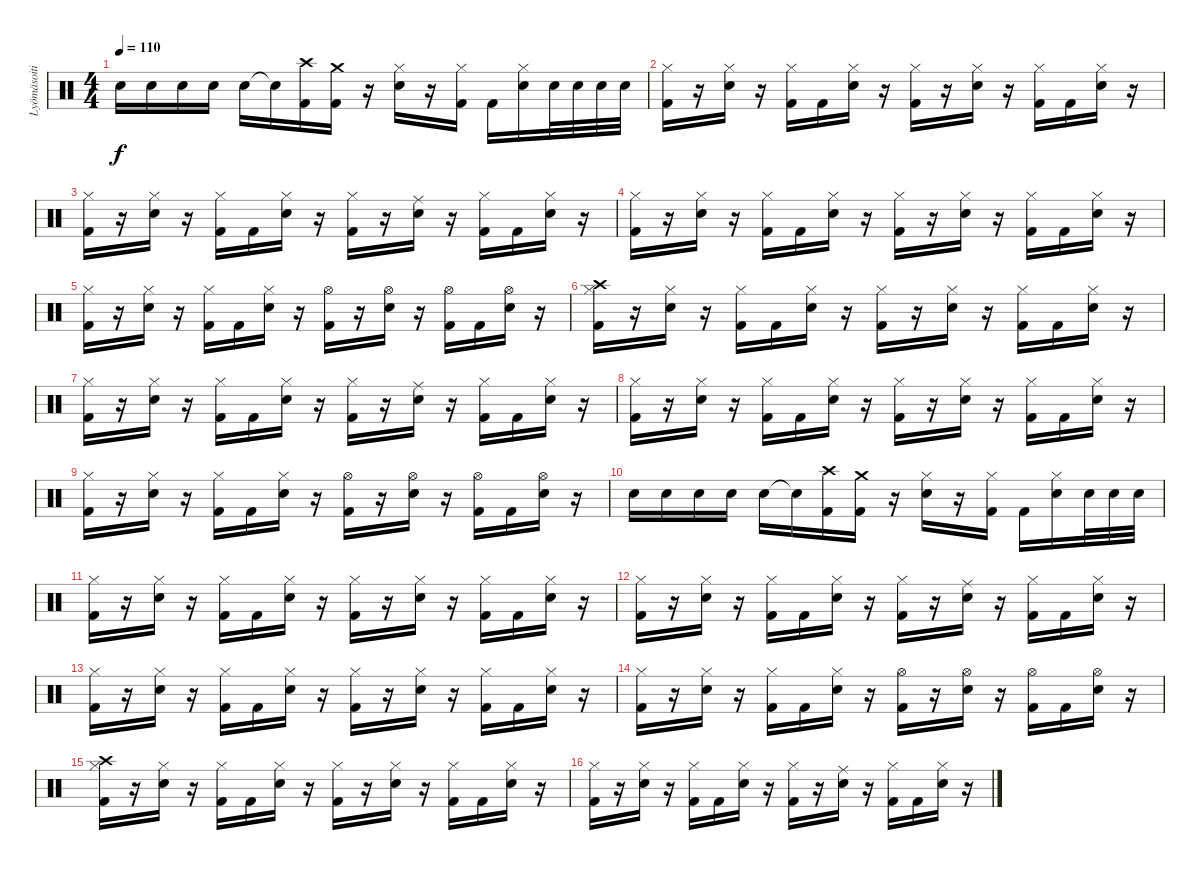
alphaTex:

\track ("Lyömäsoitin" "Lyömäsoiti") {instrument percussion}
\staff {score}
\articulation defaults
\ts (4 4)
\tempo 110
\clef neutral
\ks c "Snare (hit) 2".16{dy f} "Snare (hit) 2".16 "Snare (hit) 2".16 "Snare (hit) 2".16 "Snare (hit) 2".16 "Snare (hit)"{t}.16
("Crash high (hit)" "Kick (hit) 2").16 ("Crash medium (hit)" "Kick (hit) 2").16 r.16 ("Hi-Hat (closed)" "Snare (hit) 2").16 r.16 ("Hi-Hat (closed)" "Kick (hit) 2").16 "Kick (hit) 2".16 ("Hi-Hat (closed)" "Snare (hit) 2").16 "Snare (hit) 2".32 "Snare (hit) 2".32 "Snare (hit) 2".32 "Snare (hit) 2".32 |
("Hi-Hat (closed)" "Kick (hit) 2").16 r.16 ("Hi-Hat (closed)" "Snare (hit) 2").16 r.16 ("Hi-Hat (closed)" "Kick (hit) 2").16 "Kick (hit) 2".16 ("Hi-Hat (closed)" "Snare (hit) 2").16 r.16 ("Hi-Hat (closed)" "Kick (hit) 2").16 r.16 ("Hi-Hat (closed)" "Snare (hit) 2").16 r.16 ("Hi-Hat (closed)" "Kick (hit) 2").16 "Kick (hit) 2".16 ("Hi-Hat (closed)" "Snare (hit) 2").16 r.16 |
("Hi-Hat (closed)" "Kick (hit) 2").16 r.16 ("Hi-Hat (closed)" "Snare (hit) 2").16 r.16 ("Hi-Hat (closed)" "Kick (hit) 2").16 "Kick (hit) 2".16 ("Hi-Hat (closed)" "Snare (hit) 2").16 r.16 ("Hi-Hat (closed)" "Kick (hit) 2").16 r.16 ("Ride (middle)" "Snare (hit) 2").16 r.16 ("Hi-Hat (closed)" "Kick (hit) 2").16 "Kick (hit) 2".16 ("Hi-Hat (closed)" "Snare (hit) 2").16 r.16 |
("Hi-Hat (closed)" "Kick (hit) 2").16 r.16 ("Hi-Hat (closed)" "Snare (hit) 2").16 r.16 ("Hi-Hat (closed)" "Kick (hit) 2").16 "Kick (hit) 2".16 ("Hi-Hat (closed)" "Snare (hit) 2").16 r.16 ("Hi-Hat (closed)" "Kick (hit) 2").16 r.16 ("Hi-Hat (closed)" "Snare (hit) 2").16 r.16 ("Hi-Hat (closed)" "Kick (hit) 2").16 "Kick (hit) 2".16 ("Hi-Hat (closed)" "Snare (hit) 2").16 r.16 |
("Hi-Hat (closed)" "Kick (hit) 2").16 r.16 ("Hi-Hat (closed)" "Snare (hit) 2").16 r.16 ("Hi-Hat (closed)" "Kick (hit) 2").16 "Kick (hit) 2".16 ("Hi-Hat (closed)" "Snare (hit) 2").16 r.16 ("Hi-Hat (open)" "Kick (hit) 2").16 r.16 ("Hi-Hat (open)" "Snare (hit) 2").16 r.16 ("Hi-Hat (open)" "Kick (hit) 2").16 "Kick (hit) 2".16 ("Hi-Hat (open)" "Snare (hit) 2").16 r.16 |
("Crash high (hit)" "Hi-Hat (closed)" "Kick (hit) 2").16 r.16 ("Hi-Hat (closed)" "Snare (hit) 2").16 r.16 ("Hi-Hat (closed)" "Kick (hit) 2").16 "Kick (hit) 2".16 ("Hi-Hat (closed)" "Snare (hit) 2").16 r.16 ("Hi-Hat (closed)" "Kick (hit) 2").16 r.16 ("Hi-Hat (closed)" "Snare (hit) 2").16 r.16 ("Hi-Hat (closed)" "Kick (hit) 2").16 "Kick (hit) 2".16 ("Hi-Hat (closed)" "Snare (hit) 2").16 r.16 |
("Hi-Hat (closed)" "Kick (hit) 2").16 r.16 ("Hi-Hat (closed)" "Snare (hit) 2").16 r.16 ("Hi-Hat (closed)" "Kick (hit) 2").16 "Kick (hit) 2".16 ("Hi-Hat (closed)" "Snare (hit) 2").16 r.16 ("Hi-Hat (closed)" "Kick (hit) 2").16 r.16 ("Ride (middle)" "Snare (hit) 2").16 r.16 ("Hi-Hat (closed)" "Kick (hit) 2").16 "Kick (hit) 2".16 ("Hi-Hat (closed)" "Snare (hit) 2").16 r.16 |
("Hi-Hat (closed)" "Kick (hit) 2").16 r.16 ("Hi-Hat (closed)" "Snare (hit) 2").16 r.16 ("Hi-Hat (closed)" "Kick (hit) 2").16 "Kick (hit) 2".16 ("Hi-Hat (closed)" "Snare (hit) 2").16 r.16 ("Hi-Hat (closed)" "Kick (hit) 2").16 r.16 ("Hi-Hat (closed)" "Snare (hit) 2").16 r.16 ("Hi-Hat (closed)" "Kick (hit) 2").16 "Kick (hit) 2".16 ("Hi-Hat (closed)" "Snare (hit) 2").16 r.16 |
("Hi-Hat (closed)" "Kick (hit) 2").16 r.16 ("Hi-Hat (closed)" "Snare (hit) 2").16 r.16 ("Hi-Hat (closed)" "Kick (hit) 2").16 "Kick (hit) 2".16 ("Hi-Hat (closed)" "Snare (hit) 2").16 r.16 ("Hi-Hat (open)" "Kick (hit) 2").16 r.16 ("Hi-Hat (open)" "Snare (hit) 2").16 r.16 ("Hi-Hat (open)" "Kick (hit) 2").16 "Kick (hit) 2".16 ("Hi-Hat (open)" "Snare (hit) 2").16 r.16 |
"Snare (hit) 2".16 "Snare (hit) 2".16 "Snare (hit) 2".16 "Snare (hit) 2".16 "Snare (hit) 2".16 "Snare (hit)"{t}.16 ("Crash high (hit)" "Kick (hit) 2").16 ("Crash medium (hit)" "Kick (hit) 2").16 r.16 ("Hi-Hat (closed)" "Snare (hit) 2").16 r.16 ("Hi-Hat (closed)" "Kick (hit) 2").16 "Kick (hit) 2".16 ("Hi-Hat (closed)" "Snare (hit) 2").16 "Snare (hit) 2".32 "Snare (hit) 2".32 "Snare (hit) 2".32 |
("Hi-Hat (closed)" "Kick (hit) 2").16 r.16 ("Hi-Hat (closed)" "Snare (hit) 2").16 r.16 ("Hi-Hat (closed)" "Kick (hit) 2").16 "Kick (hit) 2".16 ("Hi-Hat (closed)" "Snare (hit) 2").16 r.16 ("Hi-Hat (closed)" "Kick (hit) 2").16 r.16 ("Hi-Hat (closed)" "Snare (hit) 2").16 r.16 ("Hi-Hat (closed)" "Kick (hit) 2").16 "Kick (hit) 2".16 ("Hi-Hat (closed)" "Snare (hit) 2").16 r.16 |
("Hi-Hat (closed)" "Kick (hit) 2").16 r.16 ("Hi-Hat (closed)" "Snare (hit) 2").16 r.16 ("Hi-Hat (closed)" "Kick (hit) 2").16 "Kick (hit) 2".16 ("Hi-Hat (closed)" "Snare (hit) 2").16 r.16 ("Hi-Hat (closed)" "Kick (hit) 2").16 r.16 ("Ride (middle)" "Snare (hit) 2").16 r.16 ("Hi-Hat (closed)" "Kick (hit) 2").16 "Kick (hit) 2".16 ("Hi-Hat (closed)" "Snare (hit) 2").16 r.16 |
("Hi-Hat (closed)" "Kick (hit) 2").16 r.16 ("Hi-Hat (closed)" "Snare (hit) 2").16 r.16 ("Hi-Hat (closed)" "Kick (hit) 2").16 "Kick (hit) 2".16 ("Hi-Hat (closed)" "Snare (hit) 2").16 r.16 ("Hi-Hat (closed)" "Kick (hit) 2").16 r.16 ("Hi-Hat (closed)" "Snare (hit) 2").16 r.16 ("Hi-Hat (closed)" "Kick (hit) 2").16 "Kick (hit) 2".16 ("Hi-Hat (closed)" "Snare (hit) 2").16 r.16 |
("Hi-Hat (closed)" "Kick (hit) 2").16 r.16 ("Hi-Hat (closed)" "Snare (hit) 2").16 r.16 ("Hi-Hat (closed)" "Kick (hit) 2").16 "Kick (hit) 2".16 ("Hi-Hat (closed)" "Snare (hit) 2").16 r.16 ("Hi-Hat (open)" "Kick (hit) 2").16 r.16 ("Hi-Hat (open)" "Snare (hit) 2").16 r.16 ("Hi-Hat (open)" "Kick (hit) 2").16 "Kick (hit) 2".16 ("Hi-Hat (open)" "Snare (hit) 2").16 r.16 |
("Crash high (hit)" "Hi-Hat (closed)" "Kick (hit) 2").16 r.16 ("Hi-Hat (closed)" "Snare (hit) 2").16 r.16 ("Hi-Hat (closed)" "Kick (hit) 2").16 "Kick (hit) 2".16 ("Hi-Hat (closed)" "Snare (hit) 2").16 r.16 ("Hi-Hat (closed)" "Kick (hit) 2").16 r.16 ("Hi-Hat (closed)" "Snare (hit) 2").16 r.16 ("Hi-Hat (closed)" "Kick (hit) 2").16 "Kick (hit) 2".16 ("Hi-Hat (closed)" "Snare (hit) 2").16 r.16 |
("Hi-Hat (closed)" "Kick (hit) 2").16 r.16 ("Hi-Hat (closed)" "Snare (hit) 2").16 r.16 ("Hi-Hat (closed)" "Kick (hit) 2").16 "Kick (hit) 2".16 ("Hi-Hat (closed)" "Snare (hit) 2").16 r.16 ("Hi-Hat (closed)" "Kick (hit) 2").16 r.16 ("Ride (middle)" "Snare (hit) 2").16 r.16 ("Hi-Hat (closed)" "Kick (hit) 2").16 "Kick (hit) 2".16 ("Hi-Hat (closed)" "Snare (hit) 2").16 r.16
